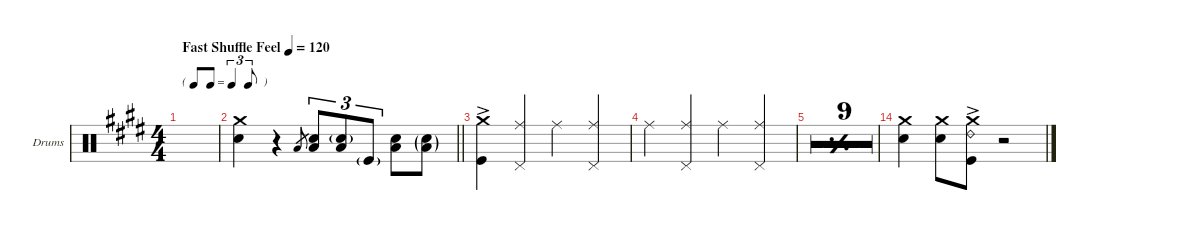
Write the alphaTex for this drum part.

\defaultSystemsLayout 4
\hideDynamics
\bracketExtendMode groupsimilarinstruments
\firstSystemTrackNameOrientation horizontal
\otherSystemsTrackNameOrientation horizontal
\track ("Drumkit" "Drums") {multiBarRest instrument percussion}
\staff {score}
\articulation defaults
\ts (4 4)
\tf triplet8th
\tempo (120 "Fast Shuffle Feel")
\clef neutral
\scale
0.480174
\ks e
|
\scale
0.520097
\barLineRight lightlight
("Snare (hit) 2" "Crash medium (hit)").4 r.4 "Low Tom (hit)".8{gr} ("Snare (hit) 2" "Low Tom (hit)").8{tu (3 2)} ("Snare (hit) 2"{g} "Low Tom (hit)").8{tu (3 2)} "Kick (hit)"{g}.8{tu (3 2) dy mf} ("Snare (hit) 2" "Low Tom (hit)").8{dy f} ("Snare (hit) 2"{g} "Low Tom (hit)"{g}).8 |
\scale
0.488961 ("Crash medium (hit)"{ac} "Kick (hit)").4 ("Ride (middle)" "Pedal Hi-Hat (hit)").4{dy ff} "Ride (middle)".4 ("Ride (middle)" "Pedal Hi-Hat (hit)").4 |
\scale
0.510499 "Ride (middle)".4 ("Ride (middle)" "Pedal Hi-Hat (hit)").4 "Ride (middle)".4 ("Ride (middle)" "Pedal Hi-Hat (hit)").4 |
\simile simple
\scale
0.489615 |
\scale
0.510073 |
\scale
0.489615 |
\scale
0.510073 |
\scale
0.491042 |
\scale
0.508649 |
\scale
0.489615 |
\scale
0.510073 |
\scale
0.495532 |
\simile none
\scale
0.504519 ("Snare (hit) 2" "Crash medium (hit)").4{dy f} ("Snare (hit) 2" "Crash medium (hit)").8 ("Crash medium (hit)"{ac} "Kick (hit)" "Ride (bell) 2").8 r.2
